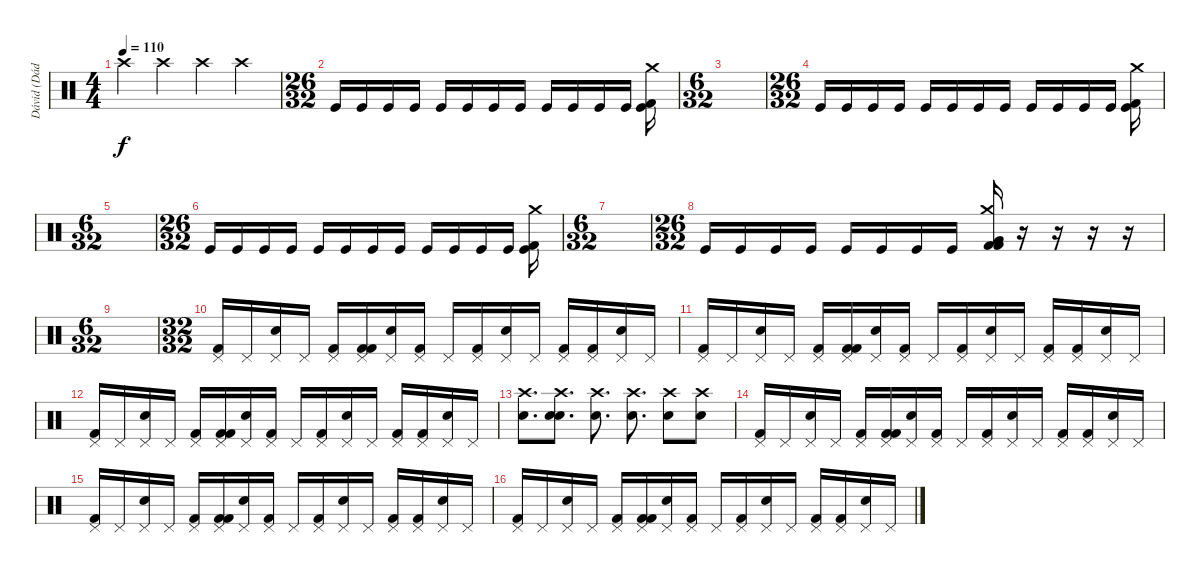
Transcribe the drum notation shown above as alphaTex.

\track ("Dávid (Dádi)" "Dávid (Dád") {instrument percussion}
\staff {score}
\articulation defaults
\ts (4 4)
\tempo 110
\clef neutral
\ks c "Crash high (hit)".4{dy f} "Crash high (hit)".4 "Crash high (hit)".4 "Crash high (hit)".4
|
\ts (26 32)
"Kick (hit)".16 "Kick (hit)".16 "Kick (hit)".16 "Kick (hit)".16 "Kick (hit)".16 "Kick (hit)".16 "Kick (hit)".16 "Kick (hit)".16 "Kick (hit)".16 "Kick (hit)".16 "Kick (hit)".16 "Kick (hit)".16 ("Kick (hit) 2" "Kick (hit)" "Crash medium (hit)").16 |
\ts (6 32)
|
\ts (26 32)
"Kick (hit)".16 "Kick (hit)".16 "Kick (hit)".16 "Kick (hit)".16 "Kick (hit)".16 "Kick (hit)".16 "Kick (hit)".16 "Kick (hit)".16 "Kick (hit)".16 "Kick (hit)".16 "Kick (hit)".16 "Kick (hit)".16 ("Kick (hit) 2" "Kick (hit)" "Crash medium (hit)").16 |
\ts (6 32)
|
\ts (26 32)
"Kick (hit)".16 "Kick (hit)".16 "Kick (hit)".16 "Kick (hit)".16 "Kick (hit)".16 "Kick (hit)".16 "Kick (hit)".16 "Kick (hit)".16 "Kick (hit)".16 "Kick (hit)".16 "Kick (hit)".16 "Kick (hit)".16 ("Kick (hit) 2" "Kick (hit)" "Crash medium (hit)").16 |
\ts (6 32)
|
\ts (26 32)
"Kick (hit)".16 "Kick (hit)".16 "Kick (hit)".16 "Kick (hit)".16 "Kick (hit)".16 "Kick (hit)".16 "Kick (hit)".16 "Kick (hit)".16 ("Kick (hit) 2" "Very Low Tom (hit)" "Crash medium (hit)" "Kick (hit) 2").16 r.16 r.16 r.16 r.16 |
\ts (6 32)
|
\ts (32 32)
("Pedal Hi-Hat (hit)" "Kick (hit) 2").16 "Pedal Hi-Hat (hit)".16 ("Pedal Hi-Hat (hit)" "Electric Snare (hit)").16 "Pedal Hi-Hat (hit)".16 ("Pedal Hi-Hat (hit)" "Kick (hit) 2").16 ("Pedal Hi-Hat (hit)" "Kick (hit) 2" "Kick (hit) 2").16 ("Pedal Hi-Hat (hit)" "Electric Snare (hit)").16 ("Pedal Hi-Hat (hit)" "Kick (hit) 2").16 "Pedal Hi-Hat (hit)".16 ("Pedal Hi-Hat (hit)" "Kick (hit) 2").16 ("Pedal Hi-Hat (hit)" "Electric Snare (hit)").16 "Pedal Hi-Hat (hit)".16 ("Pedal Hi-Hat (hit)" "Kick (hit) 2").16 ("Pedal Hi-Hat (hit)" "Kick (hit) 2").16 ("Pedal Hi-Hat (hit)" "Electric Snare (hit)").16 "Pedal Hi-Hat (hit)".16 |
("Pedal Hi-Hat (hit)" "Kick (hit) 2").16 "Pedal Hi-Hat (hit)".16 ("Pedal Hi-Hat (hit)" "Electric Snare (hit)").16 "Pedal Hi-Hat (hit)".16 ("Pedal Hi-Hat (hit)" "Kick (hit) 2").16 ("Pedal Hi-Hat (hit)" "Kick (hit) 2" "Kick (hit) 2").16 ("Pedal Hi-Hat (hit)" "Electric Snare (hit)").16 ("Pedal Hi-Hat (hit)" "Kick (hit) 2").16 "Pedal Hi-Hat (hit)".16 ("Pedal Hi-Hat (hit)" "Kick (hit) 2").16 ("Pedal Hi-Hat (hit)" "Electric Snare (hit)").16 "Pedal Hi-Hat (hit)".16 ("Pedal Hi-Hat (hit)" "Kick (hit) 2").16 ("Pedal Hi-Hat (hit)" "Kick (hit) 2").16 ("Pedal Hi-Hat (hit)" "Electric Snare (hit)").16 "Pedal Hi-Hat (hit)".16 |
("Pedal Hi-Hat (hit)" "Kick (hit) 2").16 "Pedal Hi-Hat (hit)".16 ("Pedal Hi-Hat (hit)" "Electric Snare (hit)").16 "Pedal Hi-Hat (hit)".16 ("Pedal Hi-Hat (hit)" "Kick (hit) 2").16 ("Pedal Hi-Hat (hit)" "Kick (hit) 2" "Kick (hit) 2").16 ("Pedal Hi-Hat (hit)" "Electric Snare (hit)").16 ("Pedal Hi-Hat (hit)" "Kick (hit) 2").16 "Pedal Hi-Hat (hit)".16 ("Pedal Hi-Hat (hit)" "Kick (hit) 2").16 ("Pedal Hi-Hat (hit)" "Electric Snare (hit)").16 "Pedal Hi-Hat (hit)".16 ("Pedal Hi-Hat (hit)" "Kick (hit) 2").16 ("Pedal Hi-Hat (hit)" "Kick (hit) 2").16 ("Pedal Hi-Hat (hit)" "Electric Snare (hit)").16 "Pedal Hi-Hat (hit)".16 |
("Crash high (hit)" "Electric Snare (hit)").8{d} ("Crash high (hit)" "Electric Snare (hit)" "Electric Snare (hit)").8{d} ("Crash high (hit)" "Electric Snare (hit)").8{d} ("Crash high (hit)" "Electric Snare (hit)").8{d} ("Snare (hit) 2" "Crash high (hit)").8 ("Snare (hit) 2" "Crash high (hit)").8 |
("Pedal Hi-Hat (hit)" "Kick (hit) 2").16 "Pedal Hi-Hat (hit)".16 ("Pedal Hi-Hat (hit)" "Electric Snare (hit)").16 "Pedal Hi-Hat (hit)".16 ("Pedal Hi-Hat (hit)" "Kick (hit) 2").16 ("Pedal Hi-Hat (hit)" "Kick (hit) 2" "Kick (hit) 2").16 ("Pedal Hi-Hat (hit)" "Electric Snare (hit)").16 ("Pedal Hi-Hat (hit)" "Kick (hit) 2").16 "Pedal Hi-Hat (hit)".16 ("Pedal Hi-Hat (hit)" "Kick (hit) 2").16 ("Pedal Hi-Hat (hit)" "Electric Snare (hit)").16 "Pedal Hi-Hat (hit)".16 ("Pedal Hi-Hat (hit)" "Kick (hit) 2").16 ("Pedal Hi-Hat (hit)" "Kick (hit) 2").16 ("Pedal Hi-Hat (hit)" "Electric Snare (hit)").16 "Pedal Hi-Hat (hit)".16 |
("Pedal Hi-Hat (hit)" "Kick (hit) 2").16 "Pedal Hi-Hat (hit)".16 ("Pedal Hi-Hat (hit)" "Electric Snare (hit)").16 "Pedal Hi-Hat (hit)".16 ("Pedal Hi-Hat (hit)" "Kick (hit) 2").16 ("Pedal Hi-Hat (hit)" "Kick (hit) 2" "Kick (hit) 2").16 ("Pedal Hi-Hat (hit)" "Electric Snare (hit)").16 ("Pedal Hi-Hat (hit)" "Kick (hit) 2").16 "Pedal Hi-Hat (hit)".16 ("Pedal Hi-Hat (hit)" "Kick (hit) 2").16 ("Pedal Hi-Hat (hit)" "Electric Snare (hit)").16 "Pedal Hi-Hat (hit)".16 ("Pedal Hi-Hat (hit)" "Kick (hit) 2").16 ("Pedal Hi-Hat (hit)" "Kick (hit) 2").16 ("Pedal Hi-Hat (hit)" "Electric Snare (hit)").16 "Pedal Hi-Hat (hit)".16 |
("Pedal Hi-Hat (hit)" "Kick (hit) 2").16 "Pedal Hi-Hat (hit)".16 ("Pedal Hi-Hat (hit)" "Electric Snare (hit)").16 "Pedal Hi-Hat (hit)".16 ("Pedal Hi-Hat (hit)" "Kick (hit) 2").16 ("Pedal Hi-Hat (hit)" "Kick (hit) 2" "Kick (hit) 2").16 ("Pedal Hi-Hat (hit)" "Electric Snare (hit)").16 ("Pedal Hi-Hat (hit)" "Kick (hit) 2").16 "Pedal Hi-Hat (hit)".16 ("Pedal Hi-Hat (hit)" "Kick (hit) 2").16 ("Pedal Hi-Hat (hit)" "Electric Snare (hit)").16 "Pedal Hi-Hat (hit)".16 ("Pedal Hi-Hat (hit)" "Kick (hit) 2").16 ("Pedal Hi-Hat (hit)" "Kick (hit) 2").16 ("Pedal Hi-Hat (hit)" "Electric Snare (hit)").16 "Pedal Hi-Hat (hit)".16
